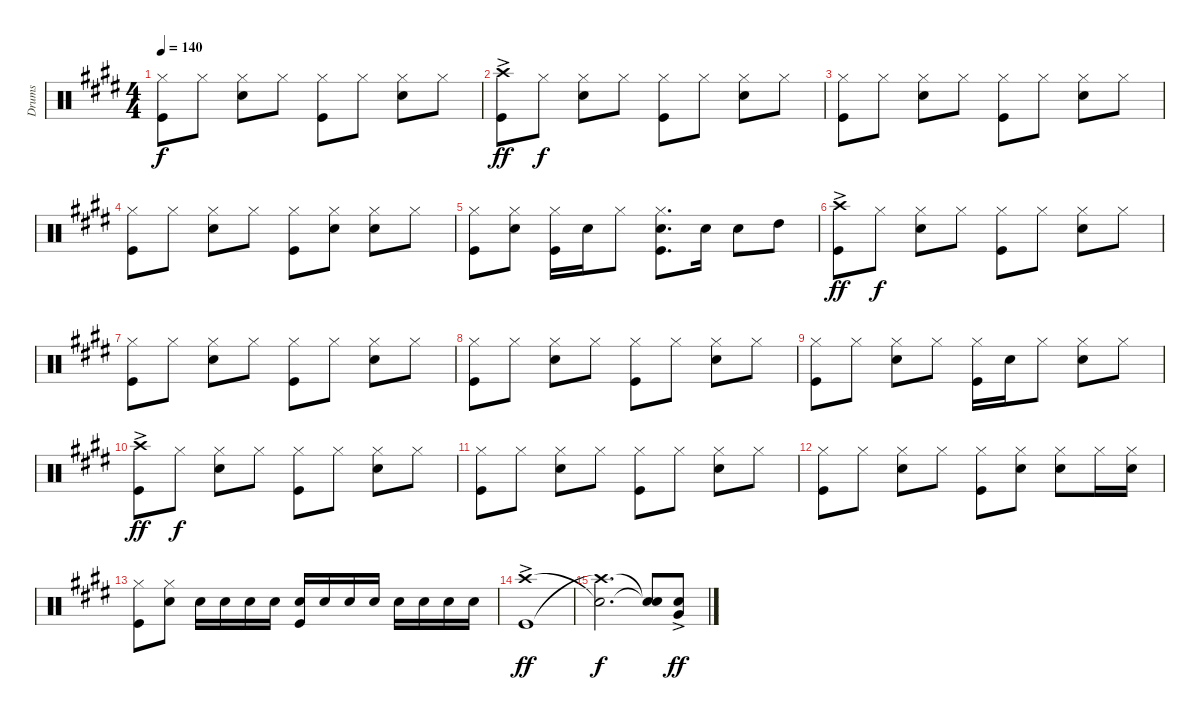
\track ("Drums" "Drums") {instrument percussion}
\staff {score}
\articulation defaults
\ts (4 4)
\tempo 140
\clef neutral
\ks e
("Hi-Hat (closed)" "Kick (hit)").8{dy f} "Hi-Hat (closed)".8 ("Hi-Hat (closed)" "Snare (hit) 2").8 "Hi-Hat (closed)".8 ("Hi-Hat (closed)" "Kick (hit)").8 "Hi-Hat (closed)".8 ("Hi-Hat (closed)" "Snare (hit) 2").8 "Hi-Hat (closed)".8 |
("Crash high (hit)"{ac} "Kick (hit)").8{dy ff} "Hi-Hat (closed)".8{dy f} ("Hi-Hat (closed)" "Snare (hit) 2").8 "Hi-Hat (closed)".8 ("Hi-Hat (closed)" "Kick (hit)").8 "Hi-Hat (closed)".8 ("Hi-Hat (closed)" "Snare (hit) 2").8 "Hi-Hat (closed)".8 |
("Hi-Hat (closed)" "Kick (hit)").8 "Hi-Hat (closed)".8 ("Hi-Hat (closed)" "Snare (hit) 2").8 "Hi-Hat (closed)".8 ("Hi-Hat (closed)" "Kick (hit)").8 "Hi-Hat (closed)".8 ("Hi-Hat (closed)" "Snare (hit) 2").8 "Hi-Hat (closed)".8 |
("Hi-Hat (closed)" "Kick (hit)").8 "Hi-Hat (closed)".8 ("Hi-Hat (closed)" "Snare (hit) 2").8 "Hi-Hat (closed)".8 ("Hi-Hat (closed)" "Kick (hit)").8 ("Hi-Hat (closed)" "Snare (hit) 2").8 ("Snare (hit) 2" "Hi-Hat (closed)").8 "Hi-Hat (closed)".8 |
("Hi-Hat (closed)" "Kick (hit)").8 ("Hi-Hat (closed)" "Snare (hit) 2").8 ("Hi-Hat (closed)" "Kick (hit)").16 "Snare (hit) 2".16 "Hi-Hat (closed)".8 ("Kick (hit)" "Hi-Hat (closed)" "Snare (hit) 2").8{d} "Snare (hit) 2".16 "Snare (hit) 2".8 "High Tom (hit)".8 |
("Crash high (hit)"{ac} "Kick (hit)").8{dy ff} "Hi-Hat (closed)".8{dy f} ("Hi-Hat (closed)" "Snare (hit) 2").8 "Hi-Hat (closed)".8 ("Hi-Hat (closed)" "Kick (hit)").8 "Hi-Hat (closed)".8 ("Hi-Hat (closed)" "Snare (hit) 2").8 "Hi-Hat (closed)".8 |
("Hi-Hat (closed)" "Kick (hit)").8 "Hi-Hat (closed)".8 ("Hi-Hat (closed)" "Snare (hit) 2").8 "Hi-Hat (closed)".8 ("Hi-Hat (closed)" "Kick (hit)").8 "Hi-Hat (closed)".8 ("Hi-Hat (closed)" "Snare (hit) 2").8 "Hi-Hat (closed)".8 |
("Hi-Hat (closed)" "Kick (hit)").8 "Hi-Hat (closed)".8 ("Hi-Hat (closed)" "Snare (hit) 2").8 "Hi-Hat (closed)".8 ("Hi-Hat (closed)" "Kick (hit)").8 "Hi-Hat (closed)".8 ("Hi-Hat (closed)" "Snare (hit) 2").8 "Hi-Hat (closed)".8 |
("Hi-Hat (closed)" "Kick (hit)").8 "Hi-Hat (closed)".8 ("Hi-Hat (closed)" "Snare (hit) 2").8 "Hi-Hat (closed)".8 ("Hi-Hat (closed)" "Kick (hit)").16 "Snare (hit) 2".16 "Hi-Hat (closed)".8 ("Hi-Hat (closed)" "Snare (hit) 2").8 "Hi-Hat (closed)".8 |
("Crash high (hit)"{ac} "Kick (hit)").8{dy ff} "Hi-Hat (closed)".8{dy f} ("Hi-Hat (closed)" "Snare (hit) 2").8 "Hi-Hat (closed)".8 ("Hi-Hat (closed)" "Kick (hit)").8 "Hi-Hat (closed)".8 ("Hi-Hat (closed)" "Snare (hit) 2").8 "Hi-Hat (closed)".8 |
("Hi-Hat (closed)" "Kick (hit)").8 "Hi-Hat (closed)".8 ("Hi-Hat (closed)" "Snare (hit) 2").8 "Hi-Hat (closed)".8 ("Hi-Hat (closed)" "Kick (hit)").8 "Hi-Hat (closed)".8 ("Hi-Hat (closed)" "Snare (hit) 2").8 "Hi-Hat (closed)".8 |
("Hi-Hat (closed)" "Kick (hit)").8 "Hi-Hat (closed)".8 ("Hi-Hat (closed)" "Snare (hit) 2").8 "Hi-Hat (closed)".8 ("Hi-Hat (closed)" "Kick (hit)").8 ("Hi-Hat (closed)" "Snare (hit) 2").8 ("Hi-Hat (closed)" "Snare (hit) 2").8 "Hi-Hat (closed)".16 ("Hi-Hat (closed)" "Snare (hit) 2").16 |
("Hi-Hat (closed)" "Kick (hit)").8 ("Hi-Hat (closed)" "Snare (hit) 2").8 "Snare (hit) 2".16 "Snare (hit) 2".16 "Snare (hit) 2".16 "Snare (hit) 2".16 ("Kick (hit)" "Snare (hit) 2").16 "Snare (hit) 2".16 "Snare (hit) 2".16 "Snare (hit) 2".16 "Snare (hit) 2".16 "Snare (hit) 2".16 "Snare (hit) 2".16 "Snare (hit) 2".16 |
("Kick (hit)" "Crash high (hit)"{ac}).1{dy ff} |
("Crash high (hit)"{t} "Snare (hit)"{t}).2{d dy f} ("Snare (hit)"{t} "Snare (hit)"{t}).8 ("Snare (hit) 2"{ac} "Very Low Tom (hit)"{ac}).8{dy ff}
